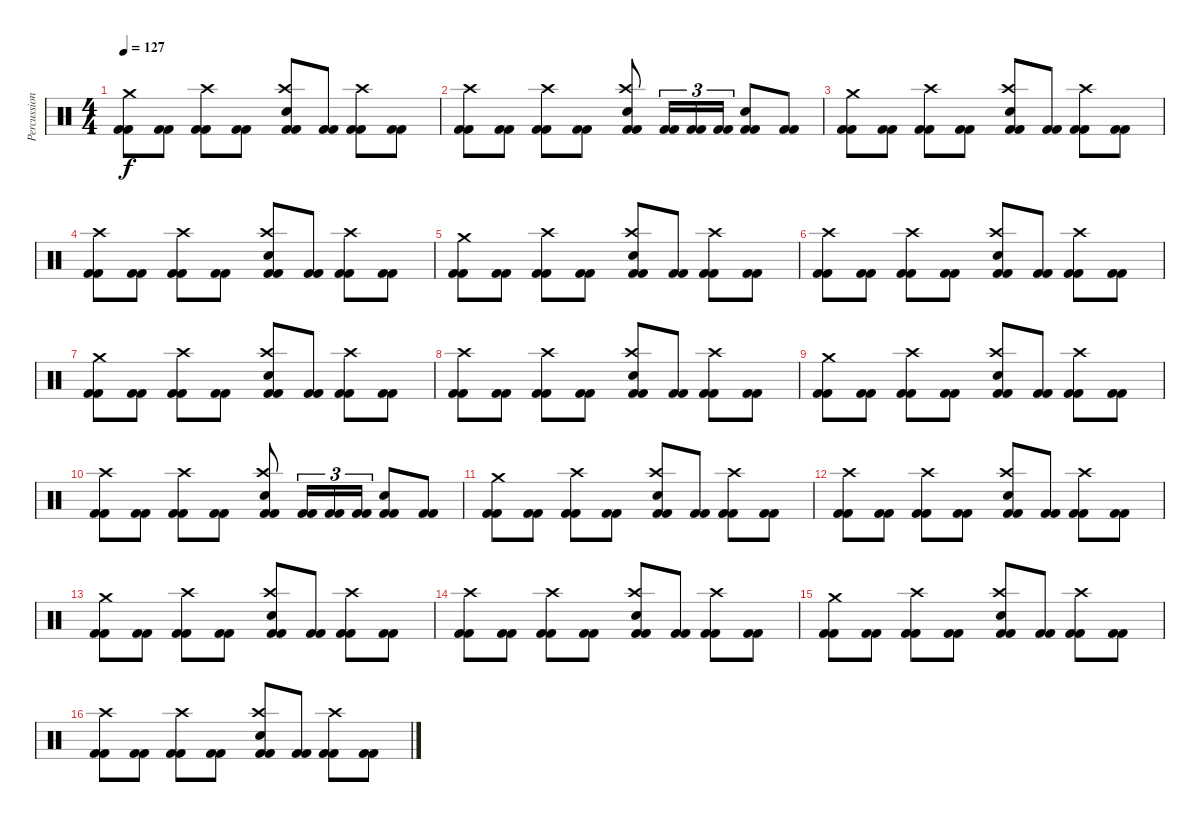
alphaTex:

\track ("Percussion" "Percussion") {instrument percussion}
\staff {score}
\articulation defaults
\ts (4 4)
\tempo 127
\clef neutral
\ks c
("Crash medium (hit)" "Kick (hit) 2" "Kick (hit) 2").8{dy f} ("Kick (hit) 2" "Kick (hit) 2").8 ("Crash high (hit)" "Kick (hit) 2" "Kick (hit) 2").8 ("Kick (hit) 2" "Kick (hit) 2").8 ("Crash high (hit)" "Electric Snare (hit)" "Kick (hit) 2" "Kick (hit) 2").8 ("Kick (hit) 2" "Kick (hit) 2").8 ("Crash high (hit)" "Kick (hit) 2" "Kick (hit) 2").8 ("Kick (hit) 2" "Kick (hit) 2").8 |
("Crash high (hit)" "Kick (hit) 2" "Kick (hit) 2").8 ("Kick (hit) 2" "Kick (hit) 2").8 ("Crash high (hit)" "Kick (hit) 2" "Kick (hit) 2").8 ("Kick (hit) 2" "Kick (hit) 2").8 ("Crash high (hit)" "Electric Snare (hit)" "Kick (hit) 2" "Kick (hit) 2").8 ("Kick (hit) 2" "Kick (hit) 2").16{tu (3 2)} ("Kick (hit) 2" "Kick (hit) 2").16{tu (3 2)} ("Kick (hit) 2" "Kick (hit) 2").16{tu (3 2)} ("Electric Snare (hit)" "Kick (hit) 2" "Kick (hit) 2").8 ("Kick (hit) 2" "Kick (hit) 2").8 |
("Crash medium (hit)" "Kick (hit) 2" "Kick (hit) 2").8 ("Kick (hit) 2" "Kick (hit) 2").8 ("Crash high (hit)" "Kick (hit) 2" "Kick (hit) 2").8 ("Kick (hit) 2" "Kick (hit) 2").8 ("Crash high (hit)" "Electric Snare (hit)" "Kick (hit) 2" "Kick (hit) 2").8 ("Kick (hit) 2" "Kick (hit) 2").8 ("Crash high (hit)" "Kick (hit) 2" "Kick (hit) 2").8 ("Kick (hit) 2" "Kick (hit) 2").8 |
("Crash high (hit)" "Kick (hit) 2" "Kick (hit) 2").8 ("Kick (hit) 2" "Kick (hit) 2").8 ("Crash high (hit)" "Kick (hit) 2" "Kick (hit) 2").8 ("Kick (hit) 2" "Kick (hit) 2").8 ("Crash high (hit)" "Electric Snare (hit)" "Kick (hit) 2" "Kick (hit) 2").8 ("Kick (hit) 2" "Kick (hit) 2").8 ("Crash high (hit)" "Kick (hit) 2" "Kick (hit) 2").8 ("Kick (hit) 2" "Kick (hit) 2").8 |
("Crash medium (hit)" "Kick (hit) 2" "Kick (hit) 2").8 ("Kick (hit) 2" "Kick (hit) 2").8 ("Crash high (hit)" "Kick (hit) 2" "Kick (hit) 2").8 ("Kick (hit) 2" "Kick (hit) 2").8 ("Crash high (hit)" "Electric Snare (hit)" "Kick (hit) 2" "Kick (hit) 2").8 ("Kick (hit) 2" "Kick (hit) 2").8 ("Crash high (hit)" "Kick (hit) 2" "Kick (hit) 2").8 ("Kick (hit) 2" "Kick (hit) 2").8 |
("Crash high (hit)" "Kick (hit) 2" "Kick (hit) 2").8 ("Kick (hit) 2" "Kick (hit) 2").8 ("Crash high (hit)" "Kick (hit) 2" "Kick (hit) 2").8 ("Kick (hit) 2" "Kick (hit) 2").8 ("Crash high (hit)" "Electric Snare (hit)" "Kick (hit) 2" "Kick (hit) 2").8 ("Kick (hit) 2" "Kick (hit) 2").8 ("Crash high (hit)" "Kick (hit) 2" "Kick (hit) 2").8 ("Kick (hit) 2" "Kick (hit) 2").8 |
("Crash medium (hit)" "Kick (hit) 2" "Kick (hit) 2").8 ("Kick (hit) 2" "Kick (hit) 2").8 ("Crash high (hit)" "Kick (hit) 2" "Kick (hit) 2").8 ("Kick (hit) 2" "Kick (hit) 2").8 ("Crash high (hit)" "Electric Snare (hit)" "Kick (hit) 2" "Kick (hit) 2").8 ("Kick (hit) 2" "Kick (hit) 2").8 ("Crash high (hit)" "Kick (hit) 2" "Kick (hit) 2").8 ("Kick (hit) 2" "Kick (hit) 2").8 |
("Crash high (hit)" "Kick (hit) 2" "Kick (hit) 2").8 ("Kick (hit) 2" "Kick (hit) 2").8 ("Crash high (hit)" "Kick (hit) 2" "Kick (hit) 2").8 ("Kick (hit) 2" "Kick (hit) 2").8 ("Crash high (hit)" "Electric Snare (hit)" "Kick (hit) 2" "Kick (hit) 2").8 ("Kick (hit) 2" "Kick (hit) 2").8 ("Crash high (hit)" "Kick (hit) 2" "Kick (hit) 2").8 ("Kick (hit) 2" "Kick (hit) 2").8 |
("Crash medium (hit)" "Kick (hit) 2" "Kick (hit) 2").8 ("Kick (hit) 2" "Kick (hit) 2").8 ("Crash high (hit)" "Kick (hit) 2" "Kick (hit) 2").8 ("Kick (hit) 2" "Kick (hit) 2").8 ("Crash high (hit)" "Electric Snare (hit)" "Kick (hit) 2" "Kick (hit) 2").8 ("Kick (hit) 2" "Kick (hit) 2").8 ("Crash high (hit)" "Kick (hit) 2" "Kick (hit) 2").8 ("Kick (hit) 2" "Kick (hit) 2").8 |
("Crash high (hit)" "Kick (hit) 2" "Kick (hit) 2").8 ("Kick (hit) 2" "Kick (hit) 2").8 ("Crash high (hit)" "Kick (hit) 2" "Kick (hit) 2").8 ("Kick (hit) 2" "Kick (hit) 2").8 ("Crash high (hit)" "Electric Snare (hit)" "Kick (hit) 2" "Kick (hit) 2").8 ("Kick (hit) 2" "Kick (hit) 2").16{tu (3 2)} ("Kick (hit) 2" "Kick (hit) 2").16{tu (3 2)} ("Kick (hit) 2" "Kick (hit) 2").16{tu (3 2)} ("Electric Snare (hit)" "Kick (hit) 2" "Kick (hit) 2").8 ("Kick (hit) 2" "Kick (hit) 2").8 |
("Crash medium (hit)" "Kick (hit) 2" "Kick (hit) 2").8 ("Kick (hit) 2" "Kick (hit) 2").8 ("Crash high (hit)" "Kick (hit) 2" "Kick (hit) 2").8 ("Kick (hit) 2" "Kick (hit) 2").8 ("Crash high (hit)" "Electric Snare (hit)" "Kick (hit) 2" "Kick (hit) 2").8 ("Kick (hit) 2" "Kick (hit) 2").8 ("Crash high (hit)" "Kick (hit) 2" "Kick (hit) 2").8 ("Kick (hit) 2" "Kick (hit) 2").8 |
("Crash high (hit)" "Kick (hit) 2" "Kick (hit) 2").8 ("Kick (hit) 2" "Kick (hit) 2").8 ("Crash high (hit)" "Kick (hit) 2" "Kick (hit) 2").8 ("Kick (hit) 2" "Kick (hit) 2").8 ("Crash high (hit)" "Electric Snare (hit)" "Kick (hit) 2" "Kick (hit) 2").8 ("Kick (hit) 2" "Kick (hit) 2").8 ("Crash high (hit)" "Kick (hit) 2" "Kick (hit) 2").8 ("Kick (hit) 2" "Kick (hit) 2").8 |
("Crash medium (hit)" "Kick (hit) 2" "Kick (hit) 2").8 ("Kick (hit) 2" "Kick (hit) 2").8 ("Crash high (hit)" "Kick (hit) 2" "Kick (hit) 2").8 ("Kick (hit) 2" "Kick (hit) 2").8 ("Crash high (hit)" "Electric Snare (hit)" "Kick (hit) 2" "Kick (hit) 2").8 ("Kick (hit) 2" "Kick (hit) 2").8 ("Crash high (hit)" "Kick (hit) 2" "Kick (hit) 2").8 ("Kick (hit) 2" "Kick (hit) 2").8 |
("Crash high (hit)" "Kick (hit) 2" "Kick (hit) 2").8 ("Kick (hit) 2" "Kick (hit) 2").8 ("Crash high (hit)" "Kick (hit) 2" "Kick (hit) 2").8 ("Kick (hit) 2" "Kick (hit) 2").8 ("Crash high (hit)" "Electric Snare (hit)" "Kick (hit) 2" "Kick (hit) 2").8 ("Kick (hit) 2" "Kick (hit) 2").8 ("Crash high (hit)" "Kick (hit) 2" "Kick (hit) 2").8 ("Kick (hit) 2" "Kick (hit) 2").8 |
("Crash medium (hit)" "Kick (hit) 2" "Kick (hit) 2").8 ("Kick (hit) 2" "Kick (hit) 2").8 ("Crash high (hit)" "Kick (hit) 2" "Kick (hit) 2").8 ("Kick (hit) 2" "Kick (hit) 2").8 ("Crash high (hit)" "Electric Snare (hit)" "Kick (hit) 2" "Kick (hit) 2").8 ("Kick (hit) 2" "Kick (hit) 2").8 ("Crash high (hit)" "Kick (hit) 2" "Kick (hit) 2").8 ("Kick (hit) 2" "Kick (hit) 2").8 |
("Crash high (hit)" "Kick (hit) 2" "Kick (hit) 2").8 ("Kick (hit) 2" "Kick (hit) 2").8 ("Crash high (hit)" "Kick (hit) 2" "Kick (hit) 2").8 ("Kick (hit) 2" "Kick (hit) 2").8 ("Crash high (hit)" "Electric Snare (hit)" "Kick (hit) 2" "Kick (hit) 2").8 ("Kick (hit) 2" "Kick (hit) 2").8 ("Crash high (hit)" "Kick (hit) 2" "Kick (hit) 2").8 ("Kick (hit) 2" "Kick (hit) 2").8
